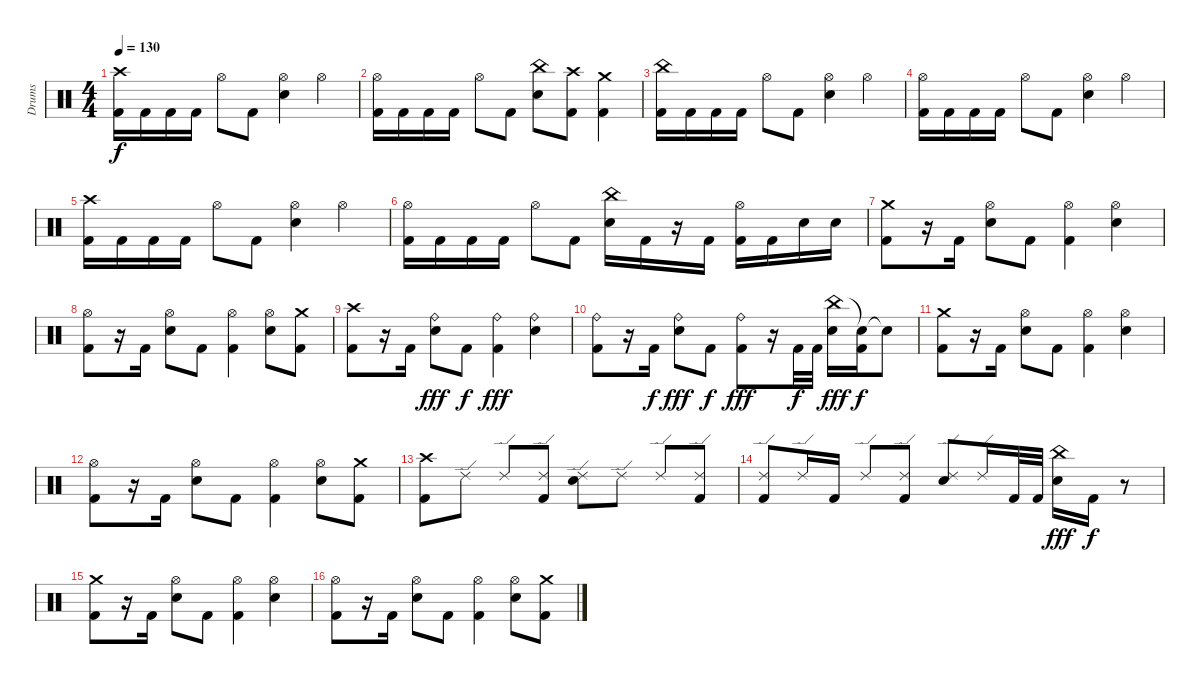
\track ("Drums" "Drums") {instrument percussion}
\staff {score}
\articulation defaults
\ts (4 4)
\tempo 130
\clef neutral
\ks c
("Crash high (hit)" "Kick (hit) 2").16{dy f} "Kick (hit) 2".16 "Kick (hit) 2".16 "Kick (hit) 2".16 "Hi-Hat (open)".8 "Kick (hit) 2".8 ("Hi-Hat (open)" "Electric Snare (hit)").4 "Hi-Hat (open)".4 |
("Hi-Hat (open)" "Kick (hit) 2").16 "Kick (hit) 2".16 "Kick (hit) 2".16 "Kick (hit) 2".16 "Hi-Hat (open)".8 "Kick (hit) 2".8 ("China (hit)" "Electric Snare (hit)").8 ("Crash high (hit)" "Kick (hit) 2").8 ("Crash medium (hit)" "Kick (hit) 2").4 |
("China (hit)" "Kick (hit) 2").16 "Kick (hit) 2".16 "Kick (hit) 2".16 "Kick (hit) 2".16 "Hi-Hat (open)".8 "Kick (hit) 2".8 ("Hi-Hat (open)" "Electric Snare (hit)").4 "Hi-Hat (open)".4 |
("Hi-Hat (open)" "Kick (hit) 2").16 "Kick (hit) 2".16 "Kick (hit) 2".16 "Kick (hit) 2".16 "Hi-Hat (open)".8 "Kick (hit) 2".8 ("Hi-Hat (open)" "Electric Snare (hit)").4 "Hi-Hat (open)".4 |
("Crash high (hit)" "Kick (hit) 2").16 "Kick (hit) 2".16 "Kick (hit) 2".16 "Kick (hit) 2".16 "Hi-Hat (open)".8 "Kick (hit) 2".8 ("Hi-Hat (open)" "Electric Snare (hit)").4 "Hi-Hat (open)".4 |
("Hi-Hat (open)" "Kick (hit) 2").16 "Kick (hit) 2".16 "Kick (hit) 2".16 "Kick (hit) 2".16 "Hi-Hat (open)".8 "Kick (hit) 2".8 ("China (hit)" "Electric Snare (hit)").16 "Kick (hit) 2".16 r.16 "Kick (hit) 2".16 ("Hi-Hat (open)" "Kick (hit) 2").16 "Kick (hit) 2".16 "Electric Snare (hit)".16 "Electric Snare (hit)".16 |
("Crash medium (hit)" "Kick (hit) 2").8 r.16 "Kick (hit) 2".16 ("Hi-Hat (open)" "Electric Snare (hit)").8 "Kick (hit) 2".8 ("Hi-Hat (open)" "Kick (hit) 2").4 ("Hi-Hat (open)" "Electric Snare (hit)").4 |
("Hi-Hat (open)" "Kick (hit) 2").8 r.16 "Kick (hit) 2".16 ("Hi-Hat (open)" "Electric Snare (hit)").8 "Kick (hit) 2".8 ("Hi-Hat (open)" "Kick (hit) 2").4 ("Hi-Hat (open)" "Electric Snare (hit)").8 ("Crash medium (hit)" "Kick (hit) 2").8 |
("Crash high (hit)" "Kick (hit) 2").8 r.16 "Kick (hit) 2".16 ("Ride (bell)" "Electric Snare (hit)").8{dy fff} "Kick (hit) 2".8{dy f} ("Ride (bell)" "Kick (hit) 2").4{dy fff} ("Ride (bell)" "Electric Snare (hit)").4 |
("Ride (bell)" "Kick (hit) 2").8 r.16 "Kick (hit) 2".16{dy f} ("Ride (bell)" "Electric Snare (hit)").8{dy fff} "Kick (hit) 2".8{dy f} ("Ride (bell)" "Kick (hit) 2").8{dy fff} r.16 "Kick (hit) 2".32{dy f} "Kick (hit) 2".32 ("China (hit)" "Electric Snare (hit)").16{dy fff} ("Snare (hit)"{t} "Kick (hit) 2").16{dy f} "Snare (hit)"{t}.8 |
("Crash medium (hit)" "Kick (hit) 2").8 r.16 "Kick (hit) 2".16 ("Hi-Hat (open)" "Electric Snare (hit)").8 "Kick (hit) 2".8 ("Hi-Hat (open)" "Kick (hit) 2").4 ("Hi-Hat (open)" "Electric Snare (hit)").4 |
("Hi-Hat (open)" "Kick (hit) 2").8 r.16 "Kick (hit) 2".16 ("Hi-Hat (open)" "Electric Snare (hit)").8 "Kick (hit) 2".8 ("Hi-Hat (open)" "Kick (hit) 2").4 ("Hi-Hat (open)" "Electric Snare (hit)").8 ("Crash medium (hit)" "Kick (hit) 2").8 |
("Crash high (hit)" "Kick (hit) 2").8 "Ride (edge) 2".8 "Ride (edge) 2".8 ("Ride (edge) 2" "Kick (hit) 2").8 ("Ride (edge) 2" "Electric Snare (hit)").8 "Ride (edge) 2".8 "Ride (edge) 2".8 ("Ride (edge) 2" "Kick (hit) 2").8 |
("Ride (edge) 2" "Kick (hit) 2").8 "Ride (edge) 2".16 "Kick (hit) 2".16 "Ride (edge) 2".8 ("Ride (edge) 2" "Kick (hit) 2").8 ("Ride (edge) 2" "Electric Snare (hit)").8 "Ride (edge) 2".16 "Kick (hit) 2".32 "Kick (hit) 2".32 ("China (hit)" "Electric Snare (hit)").16{dy fff} "Kick (hit) 2".16{dy f} r.8 |
("Crash medium (hit)" "Kick (hit) 2").8 r.16 "Kick (hit) 2".16 ("Hi-Hat (open)" "Electric Snare (hit)").8 "Kick (hit) 2".8 ("Hi-Hat (open)" "Kick (hit) 2").4 ("Hi-Hat (open)" "Electric Snare (hit)").4 |
("Hi-Hat (open)" "Kick (hit) 2").8 r.16 "Kick (hit) 2".16 ("Hi-Hat (open)" "Electric Snare (hit)").8 "Kick (hit) 2".8 ("Hi-Hat (open)" "Kick (hit) 2").4 ("Hi-Hat (open)" "Electric Snare (hit)").8 ("Crash medium (hit)" "Kick (hit) 2").8
